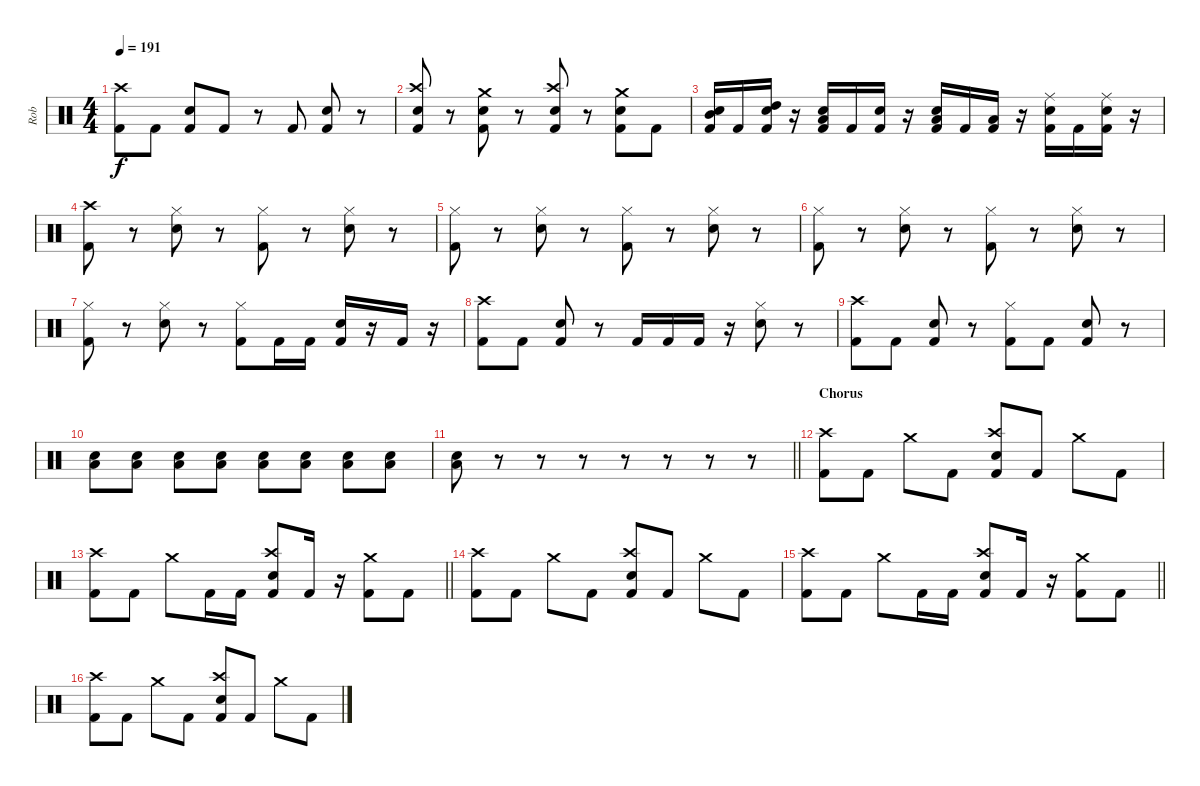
\track ("Rob" "Rob") {instrument percussion}
\staff {score}
\articulation defaults
\ts (4 4)
\tempo 191
\clef neutral
\ks c
("Kick (hit) 2" "Crash high (hit)").8{dy f} "Kick (hit) 2".8 ("Snare (hit) 2" "Kick (hit) 2").8 "Kick (hit) 2".8 r.8 "Kick (hit) 2".8 ("Snare (hit) 2" "Kick (hit) 2").8 r.8 |
("Crash high (hit)" "Snare (hit) 2" "Kick (hit) 2").8 r.8 ("Crash medium (hit)" "Snare (hit) 2" "Kick (hit) 2").8 r.8 ("Crash high (hit)" "Snare (hit) 2" "Kick (hit) 2").8 r.8 ("Crash medium (hit)" "Snare (hit) 2" "Kick (hit) 2").8 "Kick (hit) 2".8 |
("Kick (hit) 2" "Snare (hit) 2" "Mid Tom (hit)").16 "Kick (hit) 2".16 ("Kick (hit) 2" "Snare (hit) 2" "High Tom (hit)").16 r.16 ("Kick (hit) 2" "Snare (hit) 2" "Low Tom (hit)").16 "Kick (hit) 2".16 ("Kick (hit) 2" "Snare (hit) 2").16 r.16 ("Kick (hit) 2" "Snare (hit) 2" "Low Tom (hit)").16 "Kick (hit) 2".16 ("Kick (hit) 2" "Low Tom (hit)").16 r.16 ("Kick (hit) 2" "Ride (middle)" "Snare (hit) 2").16 "Kick (hit) 2".16 ("Kick (hit) 2" "Ride (middle)" "Snare (hit) 2").16 r.16 |
("Crash high (hit)" "Kick (hit) 2").8 r.8 ("Hi-Hat (closed)" "Snare (hit) 2").8 r.8 ("Hi-Hat (closed)" "Kick (hit) 2").8 r.8 ("Hi-Hat (closed)" "Snare (hit) 2").8 r.8 |
("Hi-Hat (closed)" "Kick (hit) 2").8 r.8 ("Hi-Hat (closed)" "Snare (hit) 2").8 r.8 ("Hi-Hat (closed)" "Kick (hit) 2").8 r.8 ("Hi-Hat (closed)" "Snare (hit) 2").8 r.8 |
("Hi-Hat (closed)" "Kick (hit) 2").8 r.8 ("Hi-Hat (closed)" "Snare (hit) 2").8 r.8 ("Hi-Hat (closed)" "Kick (hit) 2").8 r.8 ("Hi-Hat (closed)" "Snare (hit) 2").8 r.8 |
("Hi-Hat (closed)" "Kick (hit) 2").8 r.8 ("Hi-Hat (closed)" "Snare (hit) 2").8 r.8 ("Hi-Hat (closed)" "Kick (hit) 2").8 "Kick (hit) 2".16 "Kick (hit) 2".16 ("Kick (hit) 2" "Snare (hit) 2").16 r.16 "Kick (hit) 2".16 r.16 |
("Crash high (hit)" "Kick (hit) 2").8 "Kick (hit) 2".8 ("Snare (hit) 2" "Kick (hit) 2").8 r.8 "Kick (hit) 2".16 "Kick (hit) 2".16 "Kick (hit) 2".16 r.16 ("Hi-Hat (closed)" "Snare (hit) 2").8 r.8 |
("Crash high (hit)" "Kick (hit) 2").8 "Kick (hit) 2".8 ("Snare (hit) 2" "Kick (hit) 2").8 r.8 ("Hi-Hat (closed)" "Kick (hit) 2").8 "Kick (hit) 2".8 ("Snare (hit) 2" "Kick (hit) 2").8 r.8 |
("Snare (hit) 2" "Low Tom (hit)").8 ("Snare (hit) 2" "Low Tom (hit)").8 ("Snare (hit) 2" "Low Tom (hit)").8 ("Snare (hit) 2" "Low Tom (hit)").8 ("Snare (hit) 2" "Low Tom (hit)").8 ("Snare (hit) 2" "Low Tom (hit)").8 ("Snare (hit) 2" "Low Tom (hit)").8 ("Snare (hit) 2" "Low Tom (hit)").8 |
\barLineRight lightlight
("Snare (hit) 2" "Low Tom (hit)").8 r.8 r.8 r.8 r.8 r.8 r.8 r.8 |
\section ("" "Chorus")
("Crash high (hit)" "Kick (hit) 2").8 "Kick (hit) 2".8 "Crash medium (hit)".8 "Kick (hit) 2".8 ("Snare (hit) 2" "Kick (hit) 2" "Crash high (hit)").8 "Kick (hit) 2".8 "Crash medium (hit)".8 "Kick (hit) 2".8 |
\barLineRight lightlight
("Crash high (hit)" "Kick (hit) 2").8 "Kick (hit) 2".8 "Crash medium (hit)".8 "Kick (hit) 2".16 "Kick (hit) 2".16 ("Crash high (hit)" "Kick (hit) 2" "Snare (hit) 2").8 "Kick (hit) 2".16 r.16 ("Crash medium (hit)" "Kick (hit) 2").8 "Kick (hit) 2".8 |
("Crash high (hit)" "Kick (hit) 2").8 "Kick (hit) 2".8 "Crash medium (hit)".8 "Kick (hit) 2".8 ("Snare (hit) 2" "Kick (hit) 2" "Crash high (hit)").8 "Kick (hit) 2".8 "Crash medium (hit)".8 "Kick (hit) 2".8 |
\barLineRight lightlight
("Crash high (hit)" "Kick (hit) 2").8 "Kick (hit) 2".8 "Crash medium (hit)".8 "Kick (hit) 2".16 "Kick (hit) 2".16 ("Crash high (hit)" "Kick (hit) 2" "Snare (hit) 2").8 "Kick (hit) 2".16 r.16 ("Crash medium (hit)" "Kick (hit) 2").8 "Kick (hit) 2".8 |
("Crash high (hit)" "Kick (hit) 2").8 "Kick (hit) 2".8 "Crash medium (hit)".8 "Kick (hit) 2".8 ("Snare (hit) 2" "Kick (hit) 2" "Crash high (hit)").8 "Kick (hit) 2".8 "Crash medium (hit)".8 "Kick (hit) 2".8
